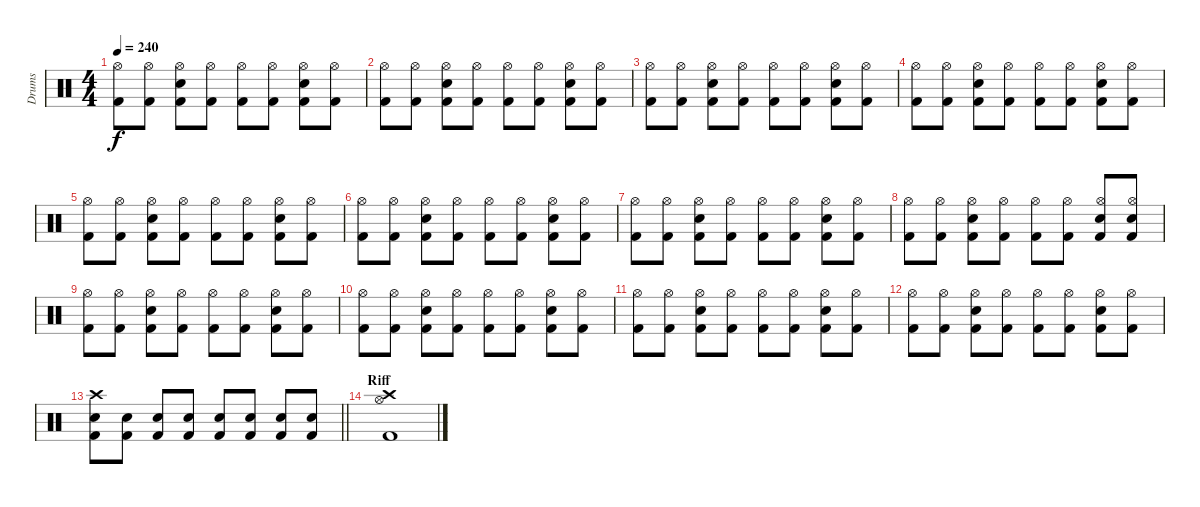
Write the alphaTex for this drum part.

\track ("Drums" "Drums") {instrument percussion}
\staff {score}
\articulation defaults
\ts (4 4)
\tempo 240
\clef neutral
\ks c
("Kick (hit) 2" "Hi-Hat (open)").8{dy f} ("Kick (hit) 2" "Hi-Hat (open)").8 ("Kick (hit) 2" "Snare (hit) 2" "Hi-Hat (open)").8 ("Kick (hit) 2" "Hi-Hat (open)").8 ("Kick (hit) 2" "Hi-Hat (open)").8 ("Kick (hit) 2" "Hi-Hat (open)").8 ("Kick (hit) 2" "Snare (hit) 2" "Hi-Hat (open)").8 ("Kick (hit) 2" "Hi-Hat (open)").8 |
("Kick (hit) 2" "Hi-Hat (open)").8 ("Kick (hit) 2" "Hi-Hat (open)").8 ("Kick (hit) 2" "Snare (hit) 2" "Hi-Hat (open)").8 ("Kick (hit) 2" "Hi-Hat (open)").8 ("Kick (hit) 2" "Hi-Hat (open)").8 ("Kick (hit) 2" "Hi-Hat (open)").8 ("Kick (hit) 2" "Snare (hit) 2" "Hi-Hat (open)").8 ("Kick (hit) 2" "Hi-Hat (open)").8 |
("Kick (hit) 2" "Hi-Hat (open)").8 ("Kick (hit) 2" "Hi-Hat (open)").8 ("Kick (hit) 2" "Snare (hit) 2" "Hi-Hat (open)").8 ("Kick (hit) 2" "Hi-Hat (open)").8 ("Kick (hit) 2" "Hi-Hat (open)").8 ("Kick (hit) 2" "Hi-Hat (open)").8 ("Kick (hit) 2" "Snare (hit) 2" "Hi-Hat (open)").8 ("Kick (hit) 2" "Hi-Hat (open)").8 |
("Kick (hit) 2" "Hi-Hat (open)").8 ("Kick (hit) 2" "Hi-Hat (open)").8 ("Kick (hit) 2" "Snare (hit) 2" "Hi-Hat (open)").8 ("Kick (hit) 2" "Hi-Hat (open)").8 ("Kick (hit) 2" "Hi-Hat (open)").8 ("Kick (hit) 2" "Hi-Hat (open)").8 ("Kick (hit) 2" "Snare (hit) 2" "Hi-Hat (open)").8 ("Kick (hit) 2" "Hi-Hat (open)").8 |
("Kick (hit) 2" "Hi-Hat (open)").8 ("Kick (hit) 2" "Hi-Hat (open)").8 ("Kick (hit) 2" "Snare (hit) 2" "Hi-Hat (open)").8 ("Kick (hit) 2" "Hi-Hat (open)").8 ("Kick (hit) 2" "Hi-Hat (open)").8 ("Kick (hit) 2" "Hi-Hat (open)").8 ("Kick (hit) 2" "Snare (hit) 2" "Hi-Hat (open)").8 ("Kick (hit) 2" "Hi-Hat (open)").8 |
("Kick (hit) 2" "Hi-Hat (open)").8 ("Kick (hit) 2" "Hi-Hat (open)").8 ("Kick (hit) 2" "Snare (hit) 2" "Hi-Hat (open)").8 ("Kick (hit) 2" "Hi-Hat (open)").8 ("Kick (hit) 2" "Hi-Hat (open)").8 ("Kick (hit) 2" "Hi-Hat (open)").8 ("Kick (hit) 2" "Snare (hit) 2" "Hi-Hat (open)").8 ("Kick (hit) 2" "Hi-Hat (open)").8 |
("Kick (hit) 2" "Hi-Hat (open)").8 ("Kick (hit) 2" "Hi-Hat (open)").8 ("Kick (hit) 2" "Snare (hit) 2" "Hi-Hat (open)").8 ("Kick (hit) 2" "Hi-Hat (open)").8 ("Kick (hit) 2" "Hi-Hat (open)").8 ("Kick (hit) 2" "Hi-Hat (open)").8 ("Kick (hit) 2" "Snare (hit) 2" "Hi-Hat (open)").8 ("Kick (hit) 2" "Hi-Hat (open)").8 |
("Kick (hit) 2" "Hi-Hat (open)").8 ("Kick (hit) 2" "Hi-Hat (open)").8 ("Kick (hit) 2" "Snare (hit) 2" "Hi-Hat (open)").8 ("Kick (hit) 2" "Hi-Hat (open)").8 ("Kick (hit) 2" "Hi-Hat (open)").8 ("Kick (hit) 2" "Hi-Hat (open)").8 ("Kick (hit) 2" "Snare (hit) 2" "Hi-Hat (open)").8 ("Kick (hit) 2" "Snare (hit) 2" "Hi-Hat (open)").8 |
("Kick (hit) 2" "Hi-Hat (open)").8 ("Kick (hit) 2" "Hi-Hat (open)").8 ("Kick (hit) 2" "Snare (hit) 2" "Hi-Hat (open)").8 ("Kick (hit) 2" "Hi-Hat (open)").8 ("Kick (hit) 2" "Hi-Hat (open)").8 ("Kick (hit) 2" "Hi-Hat (open)").8 ("Kick (hit) 2" "Snare (hit) 2" "Hi-Hat (open)").8 ("Kick (hit) 2" "Hi-Hat (open)").8 |
("Kick (hit) 2" "Hi-Hat (open)").8 ("Kick (hit) 2" "Hi-Hat (open)").8 ("Kick (hit) 2" "Snare (hit) 2" "Hi-Hat (open)").8 ("Kick (hit) 2" "Hi-Hat (open)").8 ("Kick (hit) 2" "Hi-Hat (open)").8 ("Kick (hit) 2" "Hi-Hat (open)").8 ("Kick (hit) 2" "Snare (hit) 2" "Hi-Hat (open)").8 ("Kick (hit) 2" "Hi-Hat (open)").8 |
("Kick (hit) 2" "Hi-Hat (open)").8 ("Kick (hit) 2" "Hi-Hat (open)").8 ("Kick (hit) 2" "Snare (hit) 2" "Hi-Hat (open)").8 ("Kick (hit) 2" "Hi-Hat (open)").8 ("Kick (hit) 2" "Hi-Hat (open)").8 ("Kick (hit) 2" "Hi-Hat (open)").8 ("Kick (hit) 2" "Snare (hit) 2" "Hi-Hat (open)").8 ("Kick (hit) 2" "Hi-Hat (open)").8 |
("Kick (hit) 2" "Hi-Hat (open)").8 ("Kick (hit) 2" "Hi-Hat (open)").8 ("Kick (hit) 2" "Snare (hit) 2" "Hi-Hat (open)").8 ("Kick (hit) 2" "Hi-Hat (open)").8 ("Kick (hit) 2" "Hi-Hat (open)").8 ("Kick (hit) 2" "Hi-Hat (open)").8 ("Kick (hit) 2" "Snare (hit) 2" "Hi-Hat (open)").8 ("Kick (hit) 2" "Hi-Hat (open)").8 |
\barLineRight lightlight
("Kick (hit) 2" "Snare (hit) 2" "Crash high (hit)").8 ("Kick (hit) 2" "Snare (hit) 2").8 ("Kick (hit) 2" "Snare (hit) 2").8 ("Kick (hit) 2" "Snare (hit) 2").8 ("Kick (hit) 2" "Snare (hit) 2").8 ("Kick (hit) 2" "Snare (hit) 2").8 ("Kick (hit) 2" "Snare (hit) 2").8 ("Kick (hit) 2" "Snare (hit) 2").8 |
\section ("" "Riff")
("Kick (hit) 2" "Hi-Hat (open)" "Crash high (hit)").1
